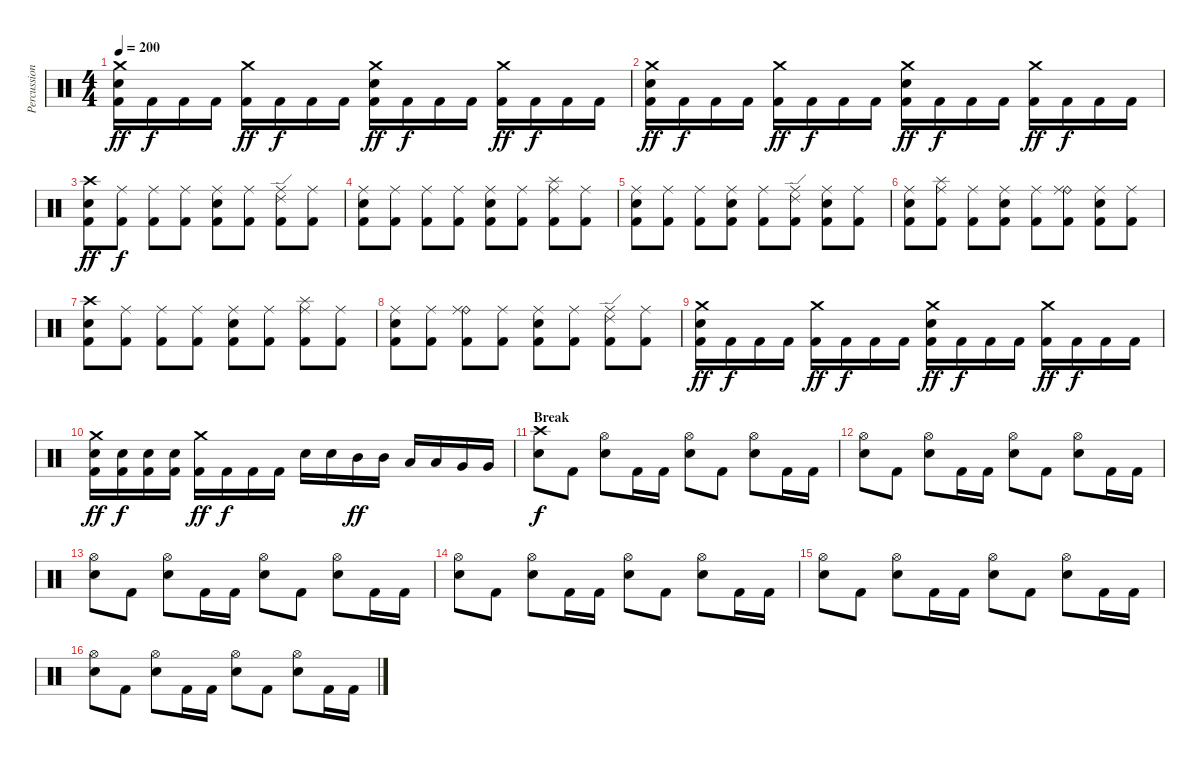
\track ("Percussions" "Percussion") {instrument percussion}
\staff {score}
\articulation defaults
\ts (4 4)
\tempo 200
\clef neutral
\ks c
("Crash medium (hit)" "Electric Snare (hit)" "Kick (hit) 2").16{dy ff} "Kick (hit) 2".16{dy f} "Kick (hit) 2".16 "Kick (hit) 2".16 ("Crash medium (hit)" "Kick (hit) 2").16{dy ff} "Kick (hit) 2".16{dy f} "Kick (hit) 2".16 "Kick (hit) 2".16 ("Crash medium (hit)" "Electric Snare (hit)" "Kick (hit) 2").16{dy ff} "Kick (hit) 2".16{dy f} "Kick (hit) 2".16 "Kick (hit) 2".16 ("Crash medium (hit)" "Kick (hit) 2").16{dy ff} "Kick (hit) 2".16{dy f} "Kick (hit) 2".16 "Kick (hit) 2".16 |
("Crash medium (hit)" "Electric Snare (hit)" "Kick (hit) 2").16{dy ff} "Kick (hit) 2".16{dy f} "Kick (hit) 2".16 "Kick (hit) 2".16 ("Crash medium (hit)" "Kick (hit) 2").16{dy ff} "Kick (hit) 2".16{dy f} "Kick (hit) 2".16 "Kick (hit) 2".16 ("Crash medium (hit)" "Electric Snare (hit)" "Kick (hit) 2").16{dy ff} "Kick (hit) 2".16{dy f} "Kick (hit) 2".16 "Kick (hit) 2".16 ("Crash medium (hit)" "Kick (hit) 2").16{dy ff} "Kick (hit) 2".16{dy f} "Kick (hit) 2".16 "Kick (hit) 2".16 |
("Crash high (hit)" "Electric Snare (hit)" "Kick (hit) 2").8{dy ff} ("Ride (middle)" "Kick (hit) 2").8{dy f} ("Ride (middle)" "Kick (hit) 2").8 ("Ride (middle)" "Kick (hit) 2").8 ("Ride (middle)" "Electric Snare (hit)" "Kick (hit) 2").8 ("Ride (middle)" "Kick (hit) 2").8 ("Ride (edge) 2" "Ride (middle)" "Kick (hit) 2").8 ("Ride (middle)" "Kick (hit) 2").8 |
("Ride (middle)" "Electric Snare (hit)" "Kick (hit) 2").8 ("Ride (middle)" "Kick (hit) 2").8 ("Ride (middle)" "Kick (hit) 2").8 ("Ride (middle)" "Kick (hit) 2").8 ("Ride (middle)" "Electric Snare (hit)" "Kick (hit) 2").8 ("Ride (middle)" "Kick (hit) 2").8 ("Splash (hit)" "Ride (middle)" "Kick (hit) 2").8 ("Ride (middle)" "Kick (hit) 2").8 |
("Ride (middle)" "Electric Snare (hit)" "Kick (hit) 2").8 ("Ride (middle)" "Kick (hit) 2").8 ("Ride (middle)" "Kick (hit) 2").8 ("Ride (middle)" "Electric Snare (hit)" "Kick (hit) 2").8 ("Ride (middle)" "Kick (hit) 2").8 ("Ride (edge) 2" "Ride (middle)" "Kick (hit) 2").8 ("Ride (middle)" "Electric Snare (hit)" "Kick (hit) 2").8 ("Ride (middle)" "Kick (hit) 2").8 |
("Ride (middle)" "Electric Snare (hit)" "Kick (hit) 2").8 ("Splash (hit)" "Ride (middle)" "Kick (hit) 2").8 ("Ride (middle)" "Kick (hit) 2").8 ("Ride (middle)" "Electric Snare (hit)" "Kick (hit) 2").8 ("Ride (middle)" "Kick (hit) 2").8 ("Ride (bell)" "Ride (middle)" "Kick (hit) 2").8 ("Ride (middle)" "Electric Snare (hit)" "Kick (hit) 2").8 ("Ride (middle)" "Kick (hit) 2").8 |
("Crash high (hit)" "Electric Snare (hit)" "Kick (hit) 2").8 ("Ride (middle)" "Kick (hit) 2").8 ("Ride (middle)" "Kick (hit) 2").8 ("Ride (middle)" "Kick (hit) 2").8 ("Ride (middle)" "Electric Snare (hit)" "Kick (hit) 2").8 ("Ride (middle)" "Kick (hit) 2").8 ("Splash (hit)" "Ride (middle)" "Kick (hit) 2").8 ("Ride (middle)" "Kick (hit) 2").8 |
("Ride (middle)" "Electric Snare (hit)" "Kick (hit) 2").8 ("Ride (middle)" "Kick (hit) 2").8 ("Ride (bell)" "Ride (middle)" "Kick (hit) 2").8 ("Ride (middle)" "Kick (hit) 2").8 ("Ride (middle)" "Electric Snare (hit)" "Kick (hit) 2").8 ("Ride (middle)" "Kick (hit) 2").8 ("Ride (edge) 2" "Ride (middle)" "Kick (hit) 2").8 ("Ride (middle)" "Kick (hit) 2").8 |
("Crash medium (hit)" "Electric Snare (hit)" "Kick (hit) 2").16{dy ff} "Kick (hit) 2".16{dy f} "Kick (hit) 2".16 "Kick (hit) 2".16 ("Crash medium (hit)" "Kick (hit) 2").16{dy ff} "Kick (hit) 2".16{dy f} "Kick (hit) 2".16 "Kick (hit) 2".16 ("Crash medium (hit)" "Electric Snare (hit)" "Kick (hit) 2").16{dy ff} "Kick (hit) 2".16{dy f} "Kick (hit) 2".16 "Kick (hit) 2".16 ("Crash medium (hit)" "Kick (hit) 2").16{dy ff} "Kick (hit) 2".16{dy f} "Kick (hit) 2".16 "Kick (hit) 2".16 |
("Crash medium (hit)" "Electric Snare (hit)" "Kick (hit) 2").16{dy ff} ("Electric Snare (hit)" "Kick (hit) 2").16{dy f} ("Electric Snare (hit)" "Kick (hit) 2").16 ("Electric Snare (hit)" "Kick (hit) 2").16 ("Crash medium (hit)" "Kick (hit) 2").16{dy ff} "Kick (hit) 2".16{dy f} "Kick (hit) 2".16 "Kick (hit) 2".16 "Electric Snare (hit)".16 "Electric Snare (hit)".16 "Mid Tom (hit)".16{dy ff} "Mid Tom (hit)".16 "Low Tom (hit)".16 "Low Tom (hit)".16 "Very Low Tom (hit)".16 "Very Low Tom (hit)".16 |
\section ("" "Break")
("Crash high (hit)" "Electric Snare (hit)").8{dy f} "Kick (hit) 2".8 ("Hi-Hat (open)" "Electric Snare (hit)").8 "Kick (hit) 2".16 "Kick (hit) 2".16 ("Hi-Hat (open)" "Electric Snare (hit)").8 "Kick (hit) 2".8 ("Hi-Hat (open)" "Electric Snare (hit)").8 "Kick (hit) 2".16 "Kick (hit) 2".16 |
("Hi-Hat (open)" "Electric Snare (hit)").8 "Kick (hit) 2".8 ("Hi-Hat (open)" "Electric Snare (hit)").8 "Kick (hit) 2".16 "Kick (hit) 2".16 ("Hi-Hat (open)" "Electric Snare (hit)").8 "Kick (hit) 2".8 ("Hi-Hat (open)" "Electric Snare (hit)").8 "Kick (hit) 2".16 "Kick (hit) 2".16 |
("Hi-Hat (open)" "Electric Snare (hit)").8 "Kick (hit) 2".8 ("Hi-Hat (open)" "Electric Snare (hit)").8 "Kick (hit) 2".16 "Kick (hit) 2".16 ("Hi-Hat (open)" "Electric Snare (hit)").8 "Kick (hit) 2".8 ("Hi-Hat (open)" "Electric Snare (hit)").8 "Kick (hit) 2".16 "Kick (hit) 2".16 |
("Hi-Hat (open)" "Electric Snare (hit)").8 "Kick (hit) 2".8 ("Hi-Hat (open)" "Electric Snare (hit)").8 "Kick (hit) 2".16 "Kick (hit) 2".16 ("Hi-Hat (open)" "Electric Snare (hit)").8 "Kick (hit) 2".8 ("Hi-Hat (open)" "Electric Snare (hit)").8 "Kick (hit) 2".16 "Kick (hit) 2".16 |
("Hi-Hat (open)" "Electric Snare (hit)").8 "Kick (hit) 2".8 ("Hi-Hat (open)" "Electric Snare (hit)").8 "Kick (hit) 2".16 "Kick (hit) 2".16 ("Hi-Hat (open)" "Electric Snare (hit)").8 "Kick (hit) 2".8 ("Hi-Hat (open)" "Electric Snare (hit)").8 "Kick (hit) 2".16 "Kick (hit) 2".16 |
("Hi-Hat (open)" "Electric Snare (hit)").8 "Kick (hit) 2".8 ("Hi-Hat (open)" "Electric Snare (hit)").8 "Kick (hit) 2".16 "Kick (hit) 2".16 ("Hi-Hat (open)" "Electric Snare (hit)").8 "Kick (hit) 2".8 ("Hi-Hat (open)" "Electric Snare (hit)").8 "Kick (hit) 2".16 "Kick (hit) 2".16
